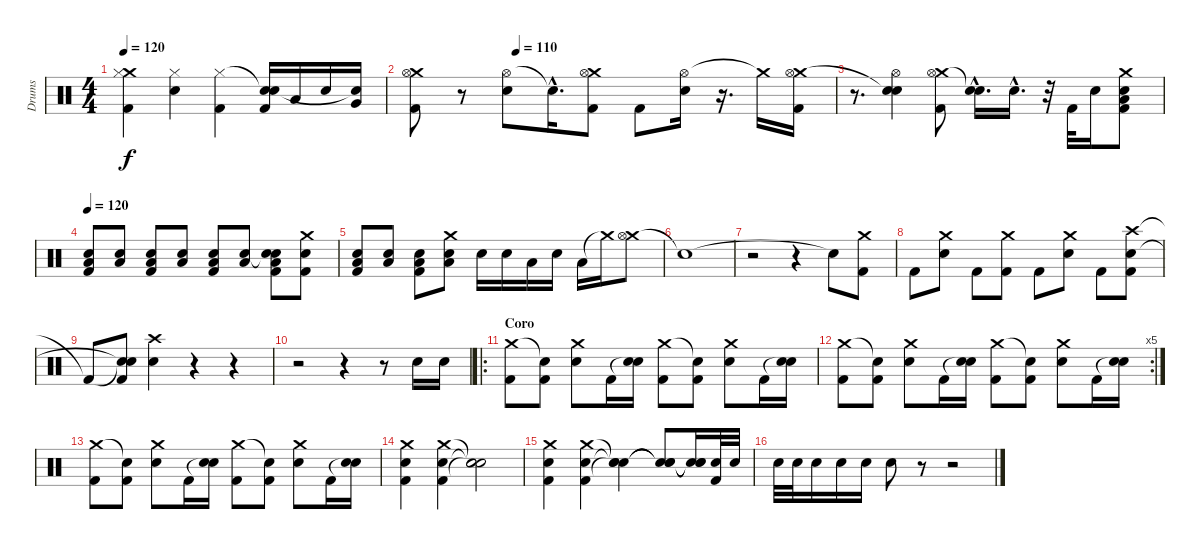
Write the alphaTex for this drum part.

\track ("Drums" "Drums") {instrument percussion}
\staff {score}
\articulation defaults
\ts (4 4)
\tempo 120
\clef neutral
\ks c
("Crash medium (hit)"{t} "Hi-Hat (closed)" "Kick (hit) 2").4{dy f} ("Hi-Hat (closed)" "Electric Snare (hit)").4 ("Hi-Hat (closed)" "Kick (hit) 2").4 ("Snare (hit)"{t} "Electric Snare (hit)" "Kick (hit) 2").16 "Low Tom (hit)".16 "Electric Snare (hit)".16 ("Very Low Tom (hit)" "Snare (hit)"{t}).16 |
\tempo (110 0.25)
("Crash medium (hit)" "Hi-Hat (open)" "Kick (hit) 2").8 r.8 ("Hi-Hat (open)" "Electric Snare (hit)").8 "Snare (hit)"{hac t}.16{d} ("Crash medium (hit)" "Hi-Hat (open)" "Kick (hit) 2").8 "Kick (hit) 2".8 ("Hi-Hat (open)" "Electric Snare (hit)").16 r.16{d} "Crash medium (hit)"{t}.16 ("Crash medium (hit)" "Hi-Hat (open)" "Kick (hit) 2").16 |
r.8{d} ("Snare (hit)"{t} "Hi-Hat (open)" "Electric Snare (hit)").4 ("Crash medium (hit)" "Hi-Hat (open)" "Kick (hit) 2").8 ("Snare (hit)"{hac t} "Electric Snare (hit)"{hac}).16{d} "Electric Snare (hit)"{hac}.16{d} r.32 "Kick (hit) 2".32 "Electric Snare (hit)".16 ("Crash medium (hit)" "Electric Snare (hit)" "Low Floor Tom (hit)" "Kick (hit) 2").8 |
\tempo 120
("Electric Snare (hit)" "Low Floor Tom (hit)" "Kick (hit) 2").8 ("Electric Snare (hit)" "Low Floor Tom (hit)").8 ("Electric Snare (hit)" "Low Floor Tom (hit)" "Kick (hit) 2").8 ("Electric Snare (hit)" "Low Floor Tom (hit)").8 ("Electric Snare (hit)" "Low Floor Tom (hit)" "Kick (hit) 2").8 ("Electric Snare (hit)" "Low Floor Tom (hit)").8 ("Snare (hit)"{t} "Electric Snare (hit)" "Low Floor Tom (hit)" "Kick (hit) 2").8 ("Crash medium (hit)" "Electric Snare (hit)" "Kick (hit) 2").8 |
("Electric Snare (hit)" "Low Floor Tom (hit)" "Kick (hit) 2").8 ("Electric Snare (hit)" "Low Floor Tom (hit)").8 ("Electric Snare (hit)" "Low Floor Tom (hit)" "Kick (hit) 2").8 ("Crash medium (hit)" "Electric Snare (hit)" "Low Floor Tom (hit)").8 "Electric Snare (hit)".16 "Electric Snare (hit)".16 "Low Tom (hit)".16 "Electric Snare (hit)".16 "Low Floor Tom (hit)".16 "Crash medium (hit)"{t}.16 ("Crash medium (hit)" "Hi-Hat (open)").8 |
"Snare (hit)"{t}.1 |
r.2 r.4 "Snare (hit)"{t}.8 ("Crash medium (hit)" "Kick (hit) 2").8 |
"Kick (hit) 2".8 ("Crash medium (hit)" "Electric Snare (hit)").8 "Kick (hit) 2".8 ("Crash medium (hit)" "Kick (hit) 2").8 "Kick (hit) 2".8 ("Crash medium (hit)" "Electric Snare (hit)").8 "Kick (hit) 2".8 ("Crash high (hit)" "Electric Snare (hit)" "Kick (hit) 2").8 |
"Kick (hit) 2"{t}.8 ("Snare (hit)"{t} "Snare (hit)"{t} "Kick (hit) 2").8 ("Crash high (hit)" "Electric Snare (hit)").4 r.4 r.4 |
r.2 r.4 r.8 "Electric Snare (hit)".16 "Electric Snare (hit)".16 |
\ro
\section ("" "Coro")
("Crash medium (hit)" "Kick (hit) 2").8 ("Snare (hit)"{t} "Kick (hit) 2").8 ("Crash medium (hit)" "Electric Snare (hit)").8 "Kick (hit) 2".16 ("Snare (hit)"{t} "Electric Snare (hit)").16 ("Crash medium (hit)" "Kick (hit) 2").8 ("Snare (hit)"{t} "Kick (hit) 2").8 ("Crash medium (hit)" "Electric Snare (hit)").8 "Kick (hit) 2".16 ("Snare (hit)"{t} "Electric Snare (hit)").16 |
\rc 5
("Crash medium (hit)" "Kick (hit) 2").8 ("Snare (hit)"{t} "Kick (hit) 2").8 ("Crash medium (hit)" "Electric Snare (hit)").8 "Kick (hit) 2".16 ("Snare (hit)"{t} "Electric Snare (hit)").16 ("Crash medium (hit)" "Kick (hit) 2").8 ("Snare (hit)"{t} "Kick (hit) 2").8 ("Crash medium (hit)" "Electric Snare (hit)").8 "Kick (hit) 2".16 ("Snare (hit)"{t} "Electric Snare (hit)").16 |
("Crash medium (hit)" "Kick (hit) 2").8 ("Snare (hit)"{t} "Kick (hit) 2").8 ("Crash medium (hit)" "Electric Snare (hit)").8 "Kick (hit) 2".16 ("Snare (hit)"{t} "Electric Snare (hit)").16 ("Crash medium (hit)" "Kick (hit) 2").8 ("Snare (hit)"{t} "Kick (hit) 2").8 ("Crash medium (hit)" "Electric Snare (hit)").8 "Kick (hit) 2".16 ("Snare (hit)"{t} "Electric Snare (hit)").16 |
("Crash medium (hit)" "Electric Snare (hit)" "Kick (hit) 2").4 ("Crash medium (hit)" "Electric Snare (hit)" "Kick (hit) 2").4 ("Snare (hit)"{t} "Snare (hit)"{t} "Snare (hit)"{t}).2 |
("Crash medium (hit)" "Electric Snare (hit)" "Kick (hit) 2").4 ("Crash medium (hit)" "Electric Snare (hit)" "Kick (hit) 2").4 ("Snare (hit)"{t} "Snare (hit)"{t} "Snare (hit)"{t}).4 ("Snare (hit)"{t} "Snare (hit)"{t} "Snare (hit)"{t}).8 ("Snare (hit)"{t} "Snare (hit)"{t} "Snare (hit)"{t}).16 ("Electric Snare (hit)" "Kick (hit) 2").32 "Electric Snare (hit)".32 |
"Electric Snare (hit)".32 "Electric Snare (hit)".32 "Electric Snare (hit)".16 "Electric Snare (hit)".16 "Electric Snare (hit)".16 "Electric Snare (hit)".8 r.8 r.2
